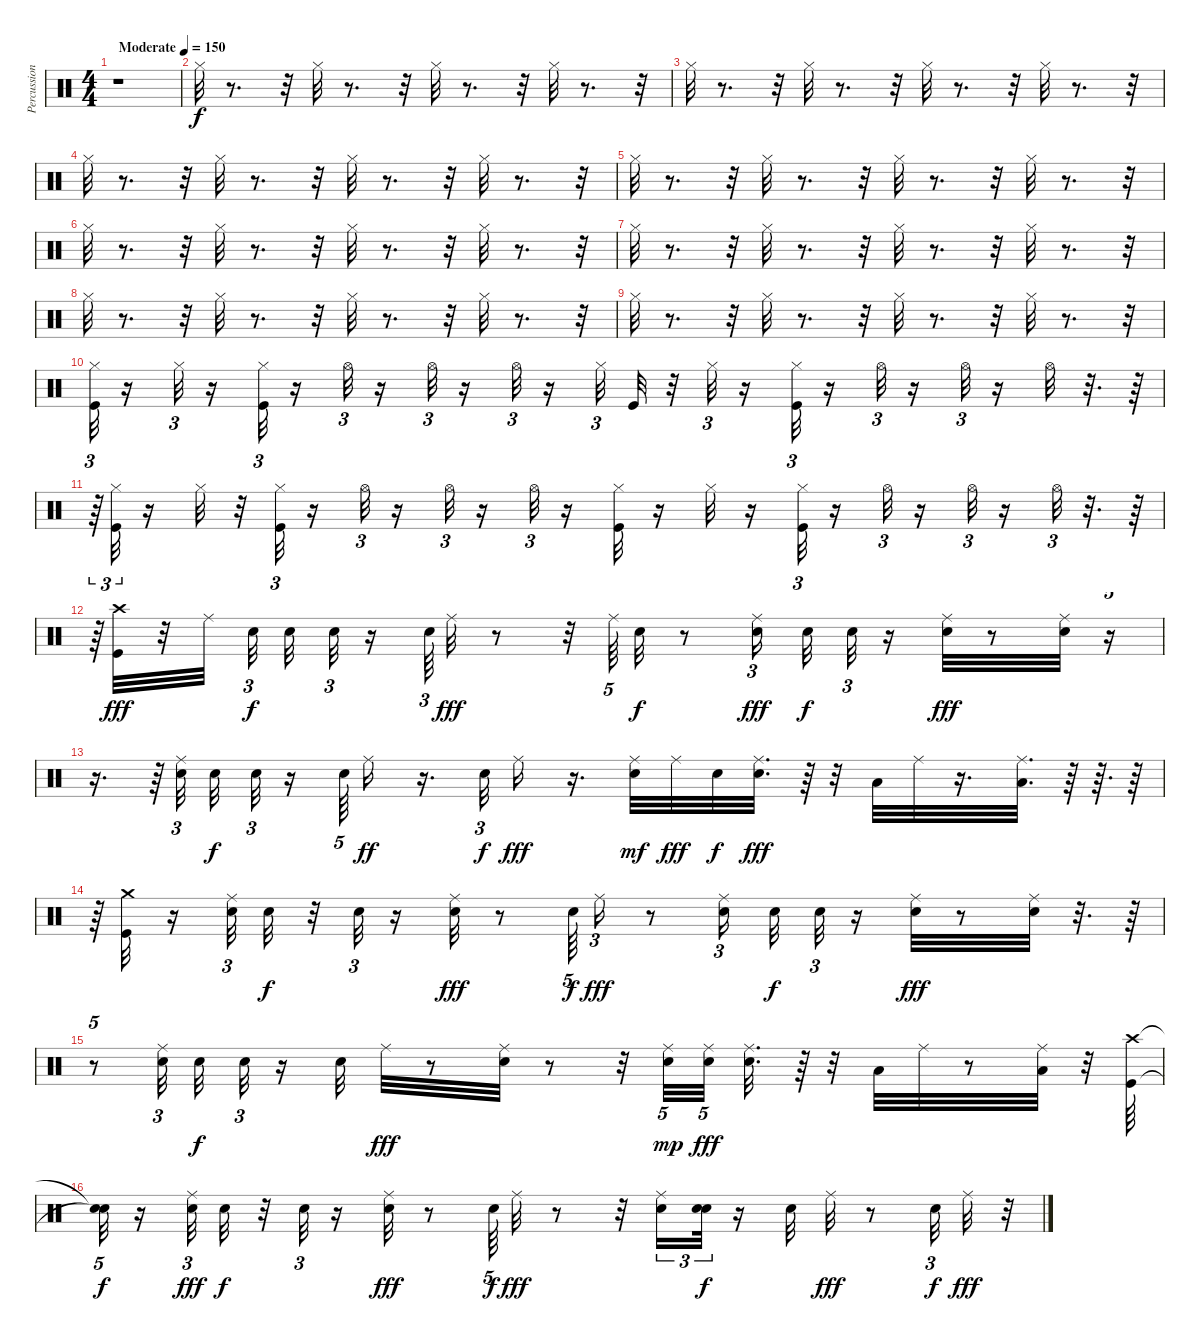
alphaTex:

\track ("Percussions" "Percussion") {instrument percussion}
\staff {score}
\articulation defaults
\ts (4 4)
\tempo (150 "Moderate")
\clef neutral
\ks c
r.1{dy f} |
"Hi-Hat (closed)".32 r.8{d} r.32 "Hi-Hat (closed)".32 r.8{d} r.32 "Hi-Hat (closed)".32 r.8{d} r.32 "Hi-Hat (closed)".32 r.8{d} r.32 |
"Hi-Hat (closed)".32 r.8{d} r.32 "Hi-Hat (closed)".32 r.8{d} r.32 "Hi-Hat (closed)".32 r.8{d} r.32 "Hi-Hat (closed)".32 r.8{d} r.32 |
"Hi-Hat (closed)".32 r.8{d} r.32 "Hi-Hat (closed)".32 r.8{d} r.32 "Hi-Hat (closed)".32 r.8{d} r.32 "Hi-Hat (closed)".32 r.8{d} r.32 |
"Hi-Hat (closed)".32 r.8{d} r.32 "Hi-Hat (closed)".32 r.8{d} r.32 "Hi-Hat (closed)".32 r.8{d} r.32 "Hi-Hat (closed)".32 r.8{d} r.32 |
"Hi-Hat (closed)".32 r.8{d} r.32 "Hi-Hat (closed)".32 r.8{d} r.32 "Hi-Hat (closed)".32 r.8{d} r.32 "Hi-Hat (closed)".32 r.8{d} r.32 |
"Hi-Hat (closed)".32 r.8{d} r.32 "Hi-Hat (closed)".32 r.8{d} r.32 "Hi-Hat (closed)".32 r.8{d} r.32 "Hi-Hat (closed)".32 r.8{d} r.32 |
"Hi-Hat (closed)".32 r.8{d} r.32 "Hi-Hat (closed)".32 r.8{d} r.32 "Hi-Hat (closed)".32 r.8{d} r.32 "Hi-Hat (closed)".32 r.8{d} r.32 |
"Hi-Hat (closed)".32 r.8{d} r.32 "Hi-Hat (closed)".32 r.8{d} r.32 "Hi-Hat (closed)".32 r.8{d} r.32 "Hi-Hat (closed)".32 r.8{d} r.32 |
("Kick (hit)" "Hi-Hat (closed)").32{tu (3 2)} r.16 "Hi-Hat (closed)".32{tu (3 2)} r.16 ("Kick (hit)" "Hi-Hat (closed)").32{tu (3 2)} r.16 "Hi-Hat (open)".32{tu (3 2)} r.16 "Hi-Hat (open)".32{tu (3 2)} r.16 "Hi-Hat (open)".32{tu (3 2)} r.16 "Hi-Hat (closed)".32{tu (3 2)} "Kick (hit)".32 r.32 "Hi-Hat (closed)".32{tu (3 2)} r.16 ("Kick (hit)" "Hi-Hat (closed)").32{tu (3 2)} r.16 "Hi-Hat (open)".32{tu (3 2)} r.16 "Hi-Hat (open)".32{tu (3 2)} r.16 "Hi-Hat (open)".32 r.32{d} r.64 |
r.64{tu (3 2)} ("Kick (hit)" "Hi-Hat (closed)").32{tu (3 2)} r.16 "Hi-Hat (closed)".32 r.32 ("Kick (hit)" "Hi-Hat (closed)").32{tu (3 2)} r.16 "Hi-Hat (open)".32{tu (3 2)} r.16 "Hi-Hat (open)".32{tu (3 2)} r.16 "Hi-Hat (open)".32{tu (3 2)} r.16 ("Hi-Hat (closed)" "Kick (hit)").32 r.16 "Hi-Hat (closed)".32 r.16 ("Kick (hit)" "Hi-Hat (closed)").32{tu (3 2)} r.16 "Hi-Hat (open)".32{tu (3 2)} r.16 "Hi-Hat (open)".32{tu (3 2)} r.16 "Hi-Hat (open)".32{tu (3 2)} r.32{d} r.64 |
r.64{tu (3 2)} ("Kick (hit)" "Crash high (hit)").32{dy fff} r.32 "Ride (middle)".32{beam splitsecondary} "Electric Snare (hit)".32{tu (3 2) dy f beam splitsecondary} "Electric Snare (hit)".32 "Electric Snare (hit)".32{tu (3 2)} r.16 "Electric Snare (hit)".64{tu (3 2)} "Ride (middle)".32{dy fff} r.8 r.32 "Ride (middle)".64{tu (5 4)} "Electric Snare (hit)".32{dy f} r.8 ("Ride (middle)" "Electric Snare (hit)").16{tu (3 2) dy fff beam splitsecondary} "Electric Snare (hit)".32{dy f} "Electric Snare (hit)".32{tu (3 2)} r.16 ("Electric Snare (hit)" "Ride (middle)").32{dy fff} r.8 ("Electric Snare (hit)" "Ride (middle)").32 r.16{tu (5 4)} |
r.16{d} r.64{tu (5 4)} ("Ride (middle)" "Electric Snare (hit)").32{tu (3 2) beam splitsecondary} "Electric Snare (hit)".32{dy f} "Electric Snare (hit)".32{tu (3 2)} r.16 "Electric Snare (hit)".64{tu (5 4)} "Ride (middle)".16{dy ff} r.16{d} "Electric Snare (hit)".32{tu (3 2) dy f} "Ride (middle)".16{dy fff} r.16{d} ("Electric Snare (hit)" "Ride (middle)").32{dy mf} "Ride (middle)".32{dy fff} "Electric Snare (hit)".32{dy f} ("Electric Snare (hit)" "Ride (middle)").32{d dy fff} r.64 r.32 "Low Tom (hit)".32 "Ride (middle)".32 r.16{d} ("Low Tom (hit)" "Ride (middle)").32{d} r.64 r.64{d} r.64 |
r.64 ("Kick (hit)" "Crash medium (hit)").32 r.16 ("Ride (middle)" "Electric Snare (hit)").32{tu (3 2)} "Electric Snare (hit)".32{dy f} r.32 "Electric Snare (hit)".32{tu (3 2)} r.16 ("Electric Snare (hit)" "Ride (middle)").32{dy fff} r.8 "Electric Snare (hit)".64{tu (5 4) dy f} "Ride (middle)".16{tu (3 2) dy fff} r.8 ("Ride (middle)" "Electric Snare (hit)").16{tu (3 2) beam splitsecondary} "Electric Snare (hit)".32{dy f} "Electric Snare (hit)".32{tu (3 2)} r.16 ("Electric Snare (hit)" "Ride (middle)").32{dy fff} r.8 ("Electric Snare (hit)" "Ride (middle)").32 r.32{d} r.64 |
r.8{tu (5 4)} ("Ride (middle)" "Electric Snare (hit)").32{tu (3 2) beam splitsecondary} "Electric Snare (hit)".32{dy f} "Electric Snare (hit)".32{tu (3 2)} r.16 "Electric Snare (hit)".32 "Ride (middle)".32{dy fff} r.8 ("Electric Snare (hit)" "Ride (middle)").32 r.8 r.32 ("Electric Snare (hit)" "Ride (middle)").32{tu (5 4) dy mp} ("Ride (middle)" "Electric Snare (hit)").32{tu (5 4) dy fff beam splitsecondary} ("Ride (middle)" "Electric Snare (hit)").32{d} r.64 r.32 "Low Tom (hit)".32 "Ride (middle)".32 r.8 ("Low Tom (hit)" "Ride (middle)").32 r.32 ("Kick (hit)" "Crash high (hit)").64 |
("Snare (hit)"{t} "Snare (hit)"{t}).32{tu (5 4) dy f} r.16 ("Electric Snare (hit)" "Ride (middle)").32{tu (3 2) dy fff} "Electric Snare (hit)".32{dy f} r.32 "Electric Snare (hit)".32{tu (3 2)} r.16 ("Electric Snare (hit)" "Ride (middle)").32{dy fff} r.8 "Electric Snare (hit)".64{tu (5 4) dy f} "Ride (middle)".32{dy fff} r.8 r.32 ("Electric Snare (hit)" "Ride (middle)").16{tu (3 2)} ("Electric Snare (hit)" "Electric Snare (hit)").32{tu (3 2) dy f} r.16 "Electric Snare (hit)".32 "Ride (middle)".32{dy fff} r.8 "Electric Snare (hit)".32{tu (3 2) dy f} "Ride (middle)".32{dy fff} r.32{tu (5 4)}
